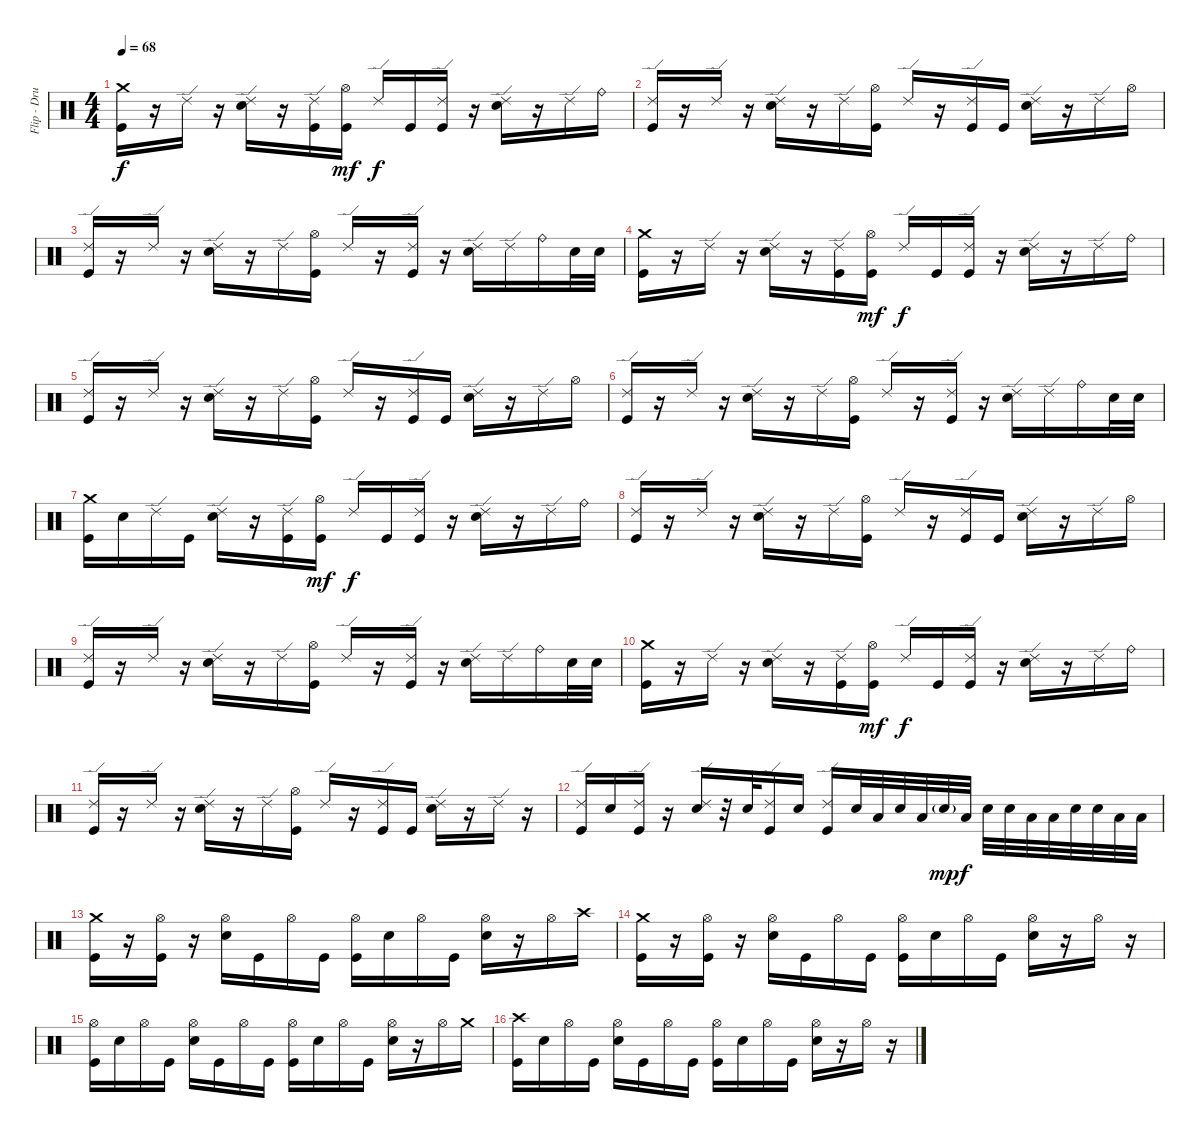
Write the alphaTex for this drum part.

\track ("Flip - Drums" "Flip - Dru") {instrument percussion}
\staff {score}
\articulation defaults
\ts (4 4)
\tempo 68
\clef neutral
\ks c
("Crash medium (hit)" "Kick (hit)").16{dy f} r.16 "Ride (edge) 2".16 r.16 ("Ride (edge) 2" "Snare (hit) 2").16 r.16 ("Ride (edge) 2" "Kick (hit)").16 ("Hi-Hat (open)" "Kick (hit)").16{dy mf} "Ride (edge) 2".16{dy f} "Kick (hit)".16 ("Ride (edge) 2" "Kick (hit)").16 r.16 ("Ride (edge) 2" "Snare (hit) 2").16 r.16 "Ride (edge) 2".16 "Ride (bell)".16 |
("Ride (edge) 2" "Kick (hit)").16 r.16 "Ride (edge) 2".16 r.16 ("Ride (edge) 2" "Snare (hit) 2").16 r.16 "Ride (edge) 2".16 ("Hi-Hat (open)" "Kick (hit)").16 "Ride (edge) 2".16 r.16 ("Ride (edge) 2" "Kick (hit)").16 "Kick (hit)".16 ("Ride (edge) 2" "Snare (hit) 2").16 r.16 "Ride (edge) 2".16 "Hi-Hat (open)".16 |
("Ride (edge) 2" "Kick (hit)").16 r.16 "Ride (edge) 2".16 r.16 ("Ride (edge) 2" "Snare (hit) 2").16 r.16 "Ride (edge) 2".16 ("Hi-Hat (open)" "Kick (hit)").16 "Ride (edge) 2".16 r.16 ("Ride (edge) 2" "Kick (hit)").16 r.16 ("Ride (edge) 2" "Snare (hit) 2").16 "Ride (edge) 2".16 "Ride (bell)".16 "Snare (hit) 2".32 "Snare (hit) 2".32 |
("Crash medium (hit)" "Kick (hit)").16 r.16 "Ride (edge) 2".16 r.16 ("Ride (edge) 2" "Snare (hit) 2").16 r.16 ("Ride (edge) 2" "Kick (hit)").16 ("Hi-Hat (open)" "Kick (hit)").16{dy mf} "Ride (edge) 2".16{dy f} "Kick (hit)".16 ("Ride (edge) 2" "Kick (hit)").16 r.16 ("Ride (edge) 2" "Snare (hit) 2").16 r.16 "Ride (edge) 2".16 "Ride (bell)".16 |
("Ride (edge) 2" "Kick (hit)").16 r.16 "Ride (edge) 2".16 r.16 ("Ride (edge) 2" "Snare (hit) 2").16 r.16 "Ride (edge) 2".16 ("Hi-Hat (open)" "Kick (hit)").16 "Ride (edge) 2".16 r.16 ("Ride (edge) 2" "Kick (hit)").16 "Kick (hit)".16 ("Ride (edge) 2" "Snare (hit) 2").16 r.16 "Ride (edge) 2".16 "Hi-Hat (open)".16 |
("Ride (edge) 2" "Kick (hit)").16 r.16 "Ride (edge) 2".16 r.16 ("Ride (edge) 2" "Snare (hit) 2").16 r.16 "Ride (edge) 2".16 ("Hi-Hat (open)" "Kick (hit)").16 "Ride (edge) 2".16 r.16 ("Ride (edge) 2" "Kick (hit)").16 r.16 ("Ride (edge) 2" "Snare (hit) 2").16 "Ride (edge) 2".16 "Ride (bell)".16 "Snare (hit) 2".32 "Snare (hit) 2".32 |
("Crash medium (hit)" "Kick (hit)").16 "Snare (hit) 2".16 "Ride (edge) 2".16 "Kick (hit)".16 ("Ride (edge) 2" "Snare (hit) 2").16 r.16 ("Ride (edge) 2" "Kick (hit)").16 ("Hi-Hat (open)" "Kick (hit)").16{dy mf} "Ride (edge) 2".16{dy f} "Kick (hit)".16 ("Ride (edge) 2" "Kick (hit)").16 r.16 ("Ride (edge) 2" "Snare (hit) 2").16 r.16 "Ride (edge) 2".16 "Ride (bell)".16 |
("Ride (edge) 2" "Kick (hit)").16 r.16 "Ride (edge) 2".16 r.16 ("Ride (edge) 2" "Snare (hit) 2").16 r.16 "Ride (edge) 2".16 ("Hi-Hat (open)" "Kick (hit)").16 "Ride (edge) 2".16 r.16 ("Ride (edge) 2" "Kick (hit)").16 "Kick (hit)".16 ("Ride (edge) 2" "Snare (hit) 2").16 r.16 "Ride (edge) 2".16 "Hi-Hat (open)".16 |
("Ride (edge) 2" "Kick (hit)").16 r.16 "Ride (edge) 2".16 r.16 ("Ride (edge) 2" "Snare (hit) 2").16 r.16 "Ride (edge) 2".16 ("Hi-Hat (open)" "Kick (hit)").16 "Ride (edge) 2".16 r.16 ("Ride (edge) 2" "Kick (hit)").16 r.16 ("Ride (edge) 2" "Snare (hit) 2").16 "Ride (edge) 2".16 "Ride (bell)".16 "Snare (hit) 2".32 "Snare (hit) 2".32 |
("Crash medium (hit)" "Kick (hit)").16 r.16 "Ride (edge) 2".16 r.16 ("Ride (edge) 2" "Snare (hit) 2").16 r.16 ("Ride (edge) 2" "Kick (hit)").16 ("Hi-Hat (open)" "Kick (hit)").16{dy mf} "Ride (edge) 2".16{dy f} "Kick (hit)".16 ("Ride (edge) 2" "Kick (hit)").16 r.16 ("Ride (edge) 2" "Snare (hit) 2").16 r.16 "Ride (edge) 2".16 "Ride (bell)".16 |
("Ride (edge) 2" "Kick (hit)").16 r.16 "Ride (edge) 2".16 r.16 ("Ride (edge) 2" "Snare (hit) 2").16 r.16 "Ride (edge) 2".16 ("Hi-Hat (open)" "Kick (hit)").16 "Ride (edge) 2".16 r.16 ("Ride (edge) 2" "Kick (hit)").16 "Kick (hit)".16 ("Ride (edge) 2" "Snare (hit) 2").16 r.16 "Ride (edge) 2".16 r.16 |
("Ride (edge) 2" "Kick (hit)").16 "Snare (hit) 2".16 ("Ride (edge) 2" "Kick (hit)").16 r.16 ("Ride (edge) 2" "Snare (hit) 2").16 r.32 "Snare (hit) 2".32 ("Ride (edge) 2" "Kick (hit)").16 "Snare (hit) 2".16 ("Ride (edge) 2" "Kick (hit)").16 "Snare (hit) 2".32 "Low Tom (hit)".32 "Snare (hit) 2".32 "Low Tom (hit)".32 "Snare (hit) 2"{g}.32{dy mp} "Low Tom (hit)".32{dy f} "Snare (hit) 2".32 "Snare (hit) 2".32 "Low Tom (hit)".32 "Low Tom (hit)".32 "Snare (hit) 2".32 "Snare (hit) 2".32 "Low Tom (hit)".32 "Low Tom (hit)".32 |
("Crash medium (hit)" "Kick (hit)").16 r.16 ("Hi-Hat (open)" "Kick (hit)").16 r.16 ("Hi-Hat (open)" "Snare (hit) 2").16 "Kick (hit)".16 "Hi-Hat (open)".16 "Kick (hit)".16 ("Hi-Hat (open)" "Kick (hit)").16 "Snare (hit) 2".16 "Hi-Hat (open)".16 "Kick (hit)".16 ("Hi-Hat (open)" "Snare (hit) 2").16 r.16 "Hi-Hat (open)".16 "Crash high (hit)".16 |
("Crash medium (hit)" "Kick (hit)").16 r.16 ("Hi-Hat (open)" "Kick (hit)").16 r.16 ("Hi-Hat (open)" "Snare (hit) 2").16 "Kick (hit)".16 "Hi-Hat (open)".16 "Kick (hit)".16 ("Hi-Hat (open)" "Kick (hit)").16 "Snare (hit) 2".16 "Hi-Hat (open)".16 "Kick (hit)".16 ("Hi-Hat (open)" "Snare (hit) 2").16 r.16 "Hi-Hat (open)".16 r.16 |
("Hi-Hat (open)" "Kick (hit)").16 "Snare (hit) 2".16 "Hi-Hat (open)".16 "Kick (hit)".16 ("Hi-Hat (open)" "Snare (hit) 2").16 "Kick (hit)".16 "Hi-Hat (open)".16 "Kick (hit)".16 ("Hi-Hat (open)" "Kick (hit)").16 "Snare (hit) 2".16 "Hi-Hat (open)".16 "Kick (hit)".16 ("Hi-Hat (open)" "Snare (hit) 2").16 r.16 "Hi-Hat (open)".16 "Crash medium (hit)".16 |
("Crash high (hit)" "Kick (hit)").16 "Snare (hit) 2".16 "Hi-Hat (open)".16 "Kick (hit)".16 ("Hi-Hat (open)" "Snare (hit) 2").16 "Kick (hit)".16 "Hi-Hat (open)".16 "Kick (hit)".16 ("Hi-Hat (open)" "Kick (hit)").16 "Snare (hit) 2".16 "Hi-Hat (open)".16 "Kick (hit)".16 ("Hi-Hat (open)" "Snare (hit) 2").16 r.16 "Hi-Hat (open)".16 r.16
